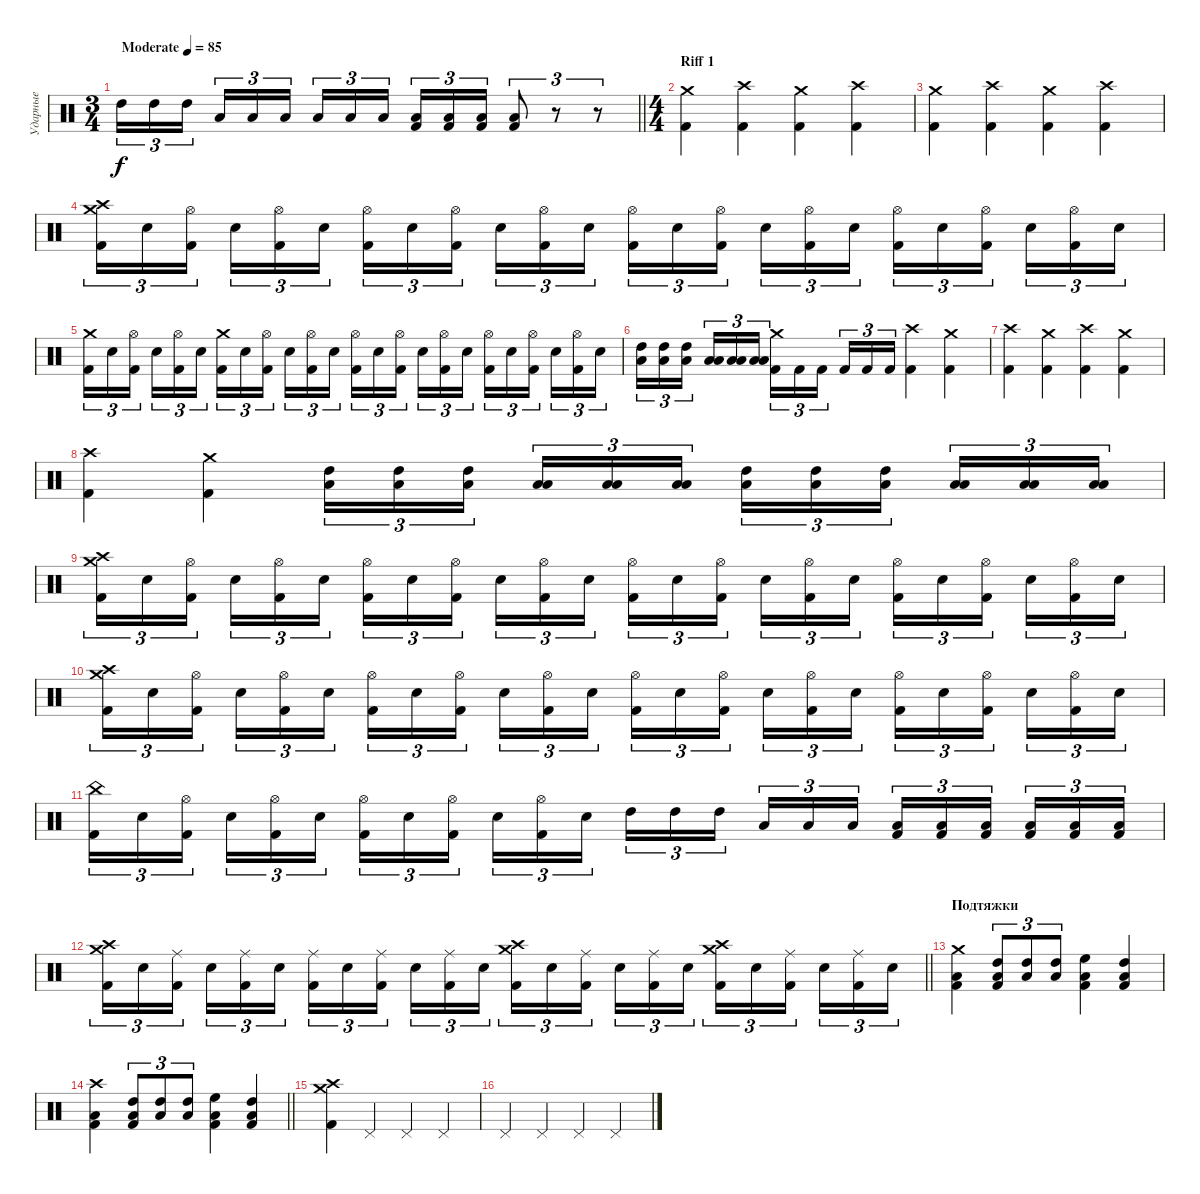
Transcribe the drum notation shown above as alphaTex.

\track ("Ударные" "Ударные") {mute instrument percussion}
\staff {score}
\articulation defaults
\ts (3 4)
\tempo (85 "Moderate")
\clef neutral
\barLineRight lightlight
\ks c "High Tom (hit)".16{tu (3 2) dy f} "High Tom (hit)".16{tu (3 2)} "High Tom (hit)".16{tu (3 2) beam splitsecondary} "Low Tom (hit)".16{tu (3 2)} "Low Tom (hit)".16{tu (3 2)} "Low Tom (hit)".16{tu (3 2)} "Low Floor Tom (hit)".16{tu (3 2)} "Low Floor Tom (hit)".16{tu (3 2)} "Low Floor Tom (hit)".16{tu (3 2) beam splitsecondary}
("Low Floor Tom (hit)" "Kick (hit) 2").16{tu (3 2)} ("Low Floor Tom (hit)" "Kick (hit) 2").16{tu (3 2)} ("Low Floor Tom (hit)" "Kick (hit) 2").16{tu (3 2)} ("Low Floor Tom (hit)" "Kick (hit) 2").8{tu (3 2)} r.8{tu (3 2)} r.8{tu (3 2)} |
\ts (4 4)
\section ("" "Riff 1")
("Crash medium (hit)" "Kick (hit) 2").4 ("Crash high (hit)" "Kick (hit) 2").4 ("Crash medium (hit)" "Kick (hit) 2").4 ("Crash high (hit)" "Kick (hit) 2").4 |
("Crash medium (hit)" "Kick (hit) 2").4 ("Crash high (hit)" "Kick (hit) 2").4 ("Crash medium (hit)" "Kick (hit) 2").4 ("Crash high (hit)" "Kick (hit) 2").4 |
("Crash high (hit)" "Crash medium (hit)" "Kick (hit) 2").16{tu (3 2)} "Electric Snare (hit)".16{tu (3 2)} ("Hi-Hat (open)" "Kick (hit) 2").16{tu (3 2) beam splitsecondary} "Electric Snare (hit)".16{tu (3 2)} ("Hi-Hat (open)" "Kick (hit) 2").16{tu (3 2)} "Electric Snare (hit)".16{tu (3 2)} ("Hi-Hat (open)" "Kick (hit) 2").16{tu (3 2)} "Electric Snare (hit)".16{tu (3 2)} ("Hi-Hat (open)" "Kick (hit) 2").16{tu (3 2) beam splitsecondary} "Electric Snare (hit)".16{tu (3 2)} ("Hi-Hat (open)" "Kick (hit) 2").16{tu (3 2)} "Electric Snare (hit)".16{tu (3 2)} ("Hi-Hat (open)" "Kick (hit) 2").16{tu (3 2)} "Electric Snare (hit)".16{tu (3 2)} ("Hi-Hat (open)" "Kick (hit) 2").16{tu (3 2) beam splitsecondary} "Electric Snare (hit)".16{tu (3 2)} ("Hi-Hat (open)" "Kick (hit) 2").16{tu (3 2)} "Electric Snare (hit)".16{tu (3 2)} ("Hi-Hat (open)" "Kick (hit) 2").16{tu (3 2)} "Electric Snare (hit)".16{tu (3 2)} ("Hi-Hat (open)" "Kick (hit) 2").16{tu (3 2) beam splitsecondary} "Electric Snare (hit)".16{tu (3 2)} ("Hi-Hat (open)" "Kick (hit) 2").16{tu (3 2)} "Electric Snare (hit)".16{tu (3 2)} |
("Crash medium (hit)" "Kick (hit) 2").16{tu (3 2)} "Electric Snare (hit)".16{tu (3 2)} ("Hi-Hat (open)" "Kick (hit) 2").16{tu (3 2) beam splitsecondary} "Electric Snare (hit)".16{tu (3 2)} ("Hi-Hat (open)" "Kick (hit) 2").16{tu (3 2)} "Electric Snare (hit)".16{tu (3 2)} ("Crash medium (hit)" "Kick (hit) 2").16{tu (3 2)} "Electric Snare (hit)".16{tu (3 2)} ("Hi-Hat (open)" "Kick (hit) 2").16{tu (3 2) beam splitsecondary} "Electric Snare (hit)".16{tu (3 2)} ("Hi-Hat (open)" "Kick (hit) 2").16{tu (3 2)} "Electric Snare (hit)".16{tu (3 2)} ("Hi-Hat (open)" "Kick (hit) 2").16{tu (3 2)} "Electric Snare (hit)".16{tu (3 2)} ("Hi-Hat (open)" "Kick (hit) 2").16{tu (3 2) beam splitsecondary} "Electric Snare (hit)".16{tu (3 2)} ("Hi-Hat (open)" "Kick (hit) 2").16{tu (3 2)} "Electric Snare (hit)".16{tu (3 2)} ("Hi-Hat (open)" "Kick (hit) 2").16{tu (3 2)} "Electric Snare (hit)".16{tu (3 2)} ("Hi-Hat (open)" "Kick (hit) 2").16{tu (3 2) beam splitsecondary} "Electric Snare (hit)".16{tu (3 2)} ("Hi-Hat (open)" "Kick (hit) 2").16{tu (3 2)} "Electric Snare (hit)".16{tu (3 2)} |
("High Tom (hit)" "Low Floor Tom (hit)").16{tu (3 2)} ("High Tom (hit)" "Low Floor Tom (hit)").16{tu (3 2)} ("High Tom (hit)" "Low Floor Tom (hit)").16{tu (3 2) beam splitsecondary} ("Low Tom (hit)" "Low Floor Tom (hit)").16{tu (3 2)} ("Low Tom (hit)" "Low Floor Tom (hit)").16{tu (3 2)} ("Low Tom (hit)" "Low Floor Tom (hit)").16{tu (3 2)} ("Crash medium (hit)" "Kick (hit) 2").16{tu (3 2)} "Kick (hit) 2".16{tu (3 2)} "Kick (hit) 2".16{tu (3 2) beam splitsecondary} "Kick (hit) 2".16{tu (3 2)} "Kick (hit) 2".16{tu (3 2)} "Kick (hit) 2".16{tu (3 2)} ("Crash high (hit)" "Kick (hit) 2").4 ("Crash medium (hit)" "Kick (hit) 2").4 |
("Crash high (hit)" "Kick (hit) 2").4 ("Crash medium (hit)" "Kick (hit) 2").4 ("Crash high (hit)" "Kick (hit) 2").4 ("Crash medium (hit)" "Kick (hit) 2").4 |
("Crash high (hit)" "Kick (hit) 2").4 ("Crash medium (hit)" "Kick (hit) 2").4 ("High Tom (hit)" "Low Floor Tom (hit)").16{tu (3 2)} ("High Tom (hit)" "Low Floor Tom (hit)").16{tu (3 2)} ("High Tom (hit)" "Low Floor Tom (hit)").16{tu (3 2) beam splitsecondary} ("Low Tom (hit)" "Low Floor Tom (hit)").16{tu (3 2)} ("Low Tom (hit)" "Low Floor Tom (hit)").16{tu (3 2)} ("Low Tom (hit)" "Low Floor Tom (hit)").16{tu (3 2)} ("High Tom (hit)" "Low Floor Tom (hit)").16{tu (3 2)} ("High Tom (hit)" "Low Floor Tom (hit)").16{tu (3 2)} ("High Tom (hit)" "Low Floor Tom (hit)").16{tu (3 2) beam splitsecondary} ("Low Tom (hit)" "Low Floor Tom (hit)").16{tu (3 2)} ("Low Tom (hit)" "Low Floor Tom (hit)").16{tu (3 2)} ("Low Tom (hit)" "Low Floor Tom (hit)").16{tu (3 2)} |
("Crash high (hit)" "Crash medium (hit)" "Kick (hit) 2").16{tu (3 2)} "Electric Snare (hit)".16{tu (3 2)} ("Hi-Hat (open)" "Kick (hit) 2").16{tu (3 2) beam splitsecondary} "Electric Snare (hit)".16{tu (3 2)} ("Hi-Hat (open)" "Kick (hit) 2").16{tu (3 2)} "Electric Snare (hit)".16{tu (3 2)} ("Hi-Hat (open)" "Kick (hit) 2").16{tu (3 2)} "Electric Snare (hit)".16{tu (3 2)} ("Hi-Hat (open)" "Kick (hit) 2").16{tu (3 2) beam splitsecondary} "Electric Snare (hit)".16{tu (3 2)} ("Hi-Hat (open)" "Kick (hit) 2").16{tu (3 2)} "Electric Snare (hit)".16{tu (3 2)} ("Hi-Hat (open)" "Kick (hit) 2").16{tu (3 2)} "Electric Snare (hit)".16{tu (3 2)} ("Hi-Hat (open)" "Kick (hit) 2").16{tu (3 2) beam splitsecondary} "Electric Snare (hit)".16{tu (3 2)} ("Hi-Hat (open)" "Kick (hit) 2").16{tu (3 2)} "Electric Snare (hit)".16{tu (3 2)} ("Hi-Hat (open)" "Kick (hit) 2").16{tu (3 2)} "Electric Snare (hit)".16{tu (3 2)} ("Hi-Hat (open)" "Kick (hit) 2").16{tu (3 2) beam splitsecondary} "Electric Snare (hit)".16{tu (3 2)} ("Hi-Hat (open)" "Kick (hit) 2").16{tu (3 2)} "Electric Snare (hit)".16{tu (3 2)} |
("Crash high (hit)" "Crash medium (hit)" "Kick (hit) 2").16{tu (3 2)} "Electric Snare (hit)".16{tu (3 2)} ("Hi-Hat (open)" "Kick (hit) 2").16{tu (3 2) beam splitsecondary} "Electric Snare (hit)".16{tu (3 2)} ("Hi-Hat (open)" "Kick (hit) 2").16{tu (3 2)} "Electric Snare (hit)".16{tu (3 2)} ("Hi-Hat (open)" "Kick (hit) 2").16{tu (3 2)} "Electric Snare (hit)".16{tu (3 2)} ("Hi-Hat (open)" "Kick (hit) 2").16{tu (3 2) beam splitsecondary} "Electric Snare (hit)".16{tu (3 2)} ("Hi-Hat (open)" "Kick (hit) 2").16{tu (3 2)} "Electric Snare (hit)".16{tu (3 2)} ("Hi-Hat (open)" "Kick (hit) 2").16{tu (3 2)} "Electric Snare (hit)".16{tu (3 2)} ("Hi-Hat (open)" "Kick (hit) 2").16{tu (3 2) beam splitsecondary} "Electric Snare (hit)".16{tu (3 2)} ("Hi-Hat (open)" "Kick (hit) 2").16{tu (3 2)} "Electric Snare (hit)".16{tu (3 2)} ("Hi-Hat (open)" "Kick (hit) 2").16{tu (3 2)} "Electric Snare (hit)".16{tu (3 2)} ("Hi-Hat (open)" "Kick (hit) 2").16{tu (3 2) beam splitsecondary} "Electric Snare (hit)".16{tu (3 2)} ("Hi-Hat (open)" "Kick (hit) 2").16{tu (3 2)} "Electric Snare (hit)".16{tu (3 2)} |
("China (hit)" "Kick (hit) 2").16{tu (3 2)} "Electric Snare (hit)".16{tu (3 2)} ("Hi-Hat (open)" "Kick (hit) 2").16{tu (3 2) beam splitsecondary} "Electric Snare (hit)".16{tu (3 2)} ("Hi-Hat (open)" "Kick (hit) 2").16{tu (3 2)} "Electric Snare (hit)".16{tu (3 2)} ("Hi-Hat (open)" "Kick (hit) 2").16{tu (3 2)} "Electric Snare (hit)".16{tu (3 2)} ("Hi-Hat (open)" "Kick (hit) 2").16{tu (3 2) beam splitsecondary} "Electric Snare (hit)".16{tu (3 2)} ("Hi-Hat (open)" "Kick (hit) 2").16{tu (3 2)} "Electric Snare (hit)".16{tu (3 2)} "High Tom (hit)".16{tu (3 2)} "High Tom (hit)".16{tu (3 2)} "High Tom (hit)".16{tu (3 2) beam splitsecondary} "Low Tom (hit)".16{tu (3 2)} "Low Tom (hit)".16{tu (3 2)} "Low Tom (hit)".16{tu (3 2)} ("Low Floor Tom (hit)" "Kick (hit) 2").16{tu (3 2)} ("Low Floor Tom (hit)" "Kick (hit) 2").16{tu (3 2)} ("Low Floor Tom (hit)" "Kick (hit) 2").16{tu (3 2) beam splitsecondary} ("Low Floor Tom (hit)" "Kick (hit) 2").16{tu (3 2)} ("Low Floor Tom (hit)" "Kick (hit) 2").16{tu (3 2)} ("Low Floor Tom (hit)" "Kick (hit) 2").16{tu (3 2)} |
\barLineRight lightlight
("Crash high (hit)" "Crash medium (hit)" "Kick (hit) 2").16{tu (3 2)} "Electric Snare (hit)".16{tu (3 2)} ("Ride (middle)" "Kick (hit) 2").16{tu (3 2) beam splitsecondary} "Electric Snare (hit)".16{tu (3 2)} ("Ride (middle)" "Kick (hit) 2").16{tu (3 2)} "Electric Snare (hit)".16{tu (3 2)} ("Ride (middle)" "Kick (hit) 2").16{tu (3 2)} "Electric Snare (hit)".16{tu (3 2)} ("Ride (middle)" "Kick (hit) 2").16{tu (3 2) beam splitsecondary} "Electric Snare (hit)".16{tu (3 2)} ("Ride (middle)" "Kick (hit) 2").16{tu (3 2)} "Electric Snare (hit)".16{tu (3 2)} ("Crash high (hit)" "Crash medium (hit)" "Kick (hit) 2").16{tu (3 2)} "Electric Snare (hit)".16{tu (3 2)} ("Ride (middle)" "Kick (hit) 2").16{tu (3 2) beam splitsecondary} "Electric Snare (hit)".16{tu (3 2)} ("Ride (middle)" "Kick (hit) 2").16{tu (3 2)} "Electric Snare (hit)".16{tu (3 2)} ("Crash high (hit)" "Crash medium (hit)" "Kick (hit) 2").16{tu (3 2)} "Electric Snare (hit)".16{tu (3 2)} ("Ride (middle)" "Kick (hit) 2").16{tu (3 2) beam splitsecondary} "Electric Snare (hit)".16{tu (3 2)} ("Ride (middle)" "Kick (hit) 2").16{tu (3 2)} "Electric Snare (hit)".16{tu (3 2)} |
\section ("" "Подтяжки")
("Crash medium (hit)" "Low Tom (hit)" "Kick (hit) 2").4 ("Low Tom (hit)" "High Tom (hit)" "Kick (hit) 2").8{tu (3 2)} ("Low Tom (hit)" "High Tom (hit)").8{tu (3 2)} ("Low Tom (hit)" "High Tom (hit)").8{tu (3 2)} ("High Floor Tom (hit)" "Low Tom (hit)" "Kick (hit) 2").4 ("Low Tom (hit)" "High Tom (hit)" "Kick (hit) 2").4 |
\barLineRight lightlight
("Crash high (hit)" "Low Tom (hit)" "Kick (hit) 2").4 ("Low Tom (hit)" "High Tom (hit)" "Kick (hit) 2").8{tu (3 2)} ("Low Tom (hit)" "High Tom (hit)").8{tu (3 2)} ("Low Tom (hit)" "High Tom (hit)").8{tu (3 2)} ("High Floor Tom (hit)" "Low Tom (hit)" "Kick (hit) 2").4 ("Low Tom (hit)" "High Tom (hit)" "Kick (hit) 2").4 |
\section ("" "")
("Crash medium (hit)" "Crash high (hit)" "Kick (hit) 2").4 "Pedal Hi-Hat (hit)".4 "Pedal Hi-Hat (hit)".4 "Pedal Hi-Hat (hit)".4 |
"Pedal Hi-Hat (hit)".4 "Pedal Hi-Hat (hit)".4 "Pedal Hi-Hat (hit)".4 "Pedal Hi-Hat (hit)".4
